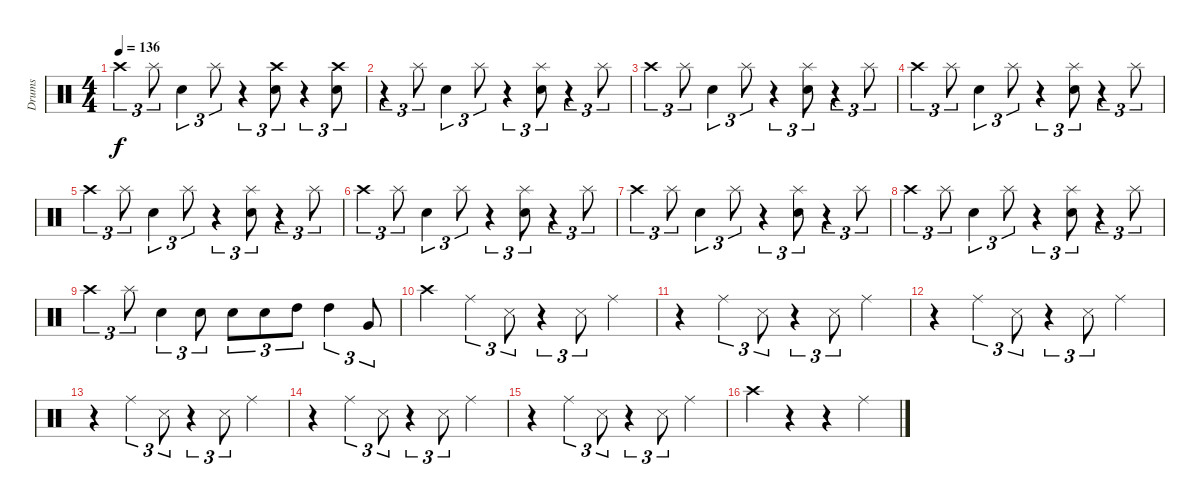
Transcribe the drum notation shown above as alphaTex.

\track ("Drums" "Drums") {instrument percussion}
\staff {score}
\articulation defaults
\ts (4 4)
\tempo 136
\clef neutral
\ks c "Crash high (hit)".4{tu (3 2) dy f} "Splash (hit)".8{tu (3 2)} "Snare (hit) 2".4{tu (3 2)} "Splash (hit)".8{tu (3 2)}
r.4{tu (3 2)} ("Crash high (hit)" "Snare (hit) 2").8{tu (3 2)} r.4{tu (3 2)} ("Crash high (hit)" "Snare (hit) 2").8{tu (3 2)} |
r.4{tu (3 2)} "Splash (hit)".8{tu (3 2)} "Snare (hit) 2".4{tu (3 2)} "Splash (hit)".8{tu (3 2)} r.4{tu (3 2)} ("Splash (hit)" "Snare (hit) 2").8{tu (3 2)} r.4{tu (3 2)} "Splash (hit)".8{tu (3 2)} |
"Crash high (hit)".4{tu (3 2)} "Splash (hit)".8{tu (3 2)} "Snare (hit) 2".4{tu (3 2)} "Splash (hit)".8{tu (3 2)} r.4{tu (3 2)} ("Splash (hit)" "Snare (hit) 2").8{tu (3 2)} r.4{tu (3 2)} "Splash (hit)".8{tu (3 2)} |
"Crash high (hit)".4{tu (3 2)} "Splash (hit)".8{tu (3 2)} "Snare (hit) 2".4{tu (3 2)} "Splash (hit)".8{tu (3 2)} r.4{tu (3 2)} ("Splash (hit)" "Snare (hit) 2").8{tu (3 2)} r.4{tu (3 2)} "Splash (hit)".8{tu (3 2)} |
"Crash high (hit)".4{tu (3 2)} "Splash (hit)".8{tu (3 2)} "Snare (hit) 2".4{tu (3 2)} "Splash (hit)".8{tu (3 2)} r.4{tu (3 2)} ("Splash (hit)" "Snare (hit) 2").8{tu (3 2)} r.4{tu (3 2)} "Splash (hit)".8{tu (3 2)} |
"Crash high (hit)".4{tu (3 2)} "Splash (hit)".8{tu (3 2)} "Snare (hit) 2".4{tu (3 2)} "Splash (hit)".8{tu (3 2)} r.4{tu (3 2)} ("Splash (hit)" "Snare (hit) 2").8{tu (3 2)} r.4{tu (3 2)} "Splash (hit)".8{tu (3 2)} |
"Crash high (hit)".4{tu (3 2)} "Splash (hit)".8{tu (3 2)} "Snare (hit) 2".4{tu (3 2)} "Splash (hit)".8{tu (3 2)} r.4{tu (3 2)} ("Splash (hit)" "Snare (hit) 2").8{tu (3 2)} r.4{tu (3 2)} "Splash (hit)".8{tu (3 2)} |
"Crash high (hit)".4{tu (3 2)} "Splash (hit)".8{tu (3 2)} "Snare (hit) 2".4{tu (3 2)} "Splash (hit)".8{tu (3 2)} r.4{tu (3 2)} ("Splash (hit)" "Snare (hit) 2").8{tu (3 2)} r.4{tu (3 2)} "Splash (hit)".8{tu (3 2)} |
"Crash high (hit)".4{tu (3 2)} "Splash (hit)".8{tu (3 2)} "Snare (hit) 2".4{tu (3 2)} "Snare (hit) 2".8{tu (3 2)} "Snare (hit) 2".8{tu (3 2)} "Snare (hit) 2".8{tu (3 2)} "High Tom (hit)".8{tu (3 2)} "High Tom (hit)".4{tu (3 2)} "Very Low Tom (hit)".8{tu (3 2)} |
"Crash high (hit)".4 "Ride (middle)".4{tu (3 2)} "Snare (side stick) 3".8{tu (3 2)} r.4{tu (3 2)} "Snare (side stick) 3".8{tu (3 2)} "Ride (middle)".4 |
r.4 "Ride (middle)".4{tu (3 2)} "Snare (side stick) 3".8{tu (3 2)} r.4{tu (3 2)} "Snare (side stick) 3".8{tu (3 2)} "Ride (middle)".4 |
r.4 "Ride (middle)".4{tu (3 2)} "Snare (side stick) 3".8{tu (3 2)} r.4{tu (3 2)} "Snare (side stick) 3".8{tu (3 2)} "Ride (middle)".4 |
r.4 "Ride (middle)".4{tu (3 2)} "Snare (side stick) 3".8{tu (3 2)} r.4{tu (3 2)} "Snare (side stick) 3".8{tu (3 2)} "Ride (middle)".4 |
r.4 "Ride (middle)".4{tu (3 2)} "Snare (side stick) 3".8{tu (3 2)} r.4{tu (3 2)} "Snare (side stick) 3".8{tu (3 2)} "Ride (middle)".4 |
r.4 "Ride (middle)".4{tu (3 2)} "Snare (side stick) 3".8{tu (3 2)} r.4{tu (3 2)} "Snare (side stick) 3".8{tu (3 2)} "Ride (middle)".4 |
"Crash high (hit)".4 r.4 r.4 "Ride (middle)".4
